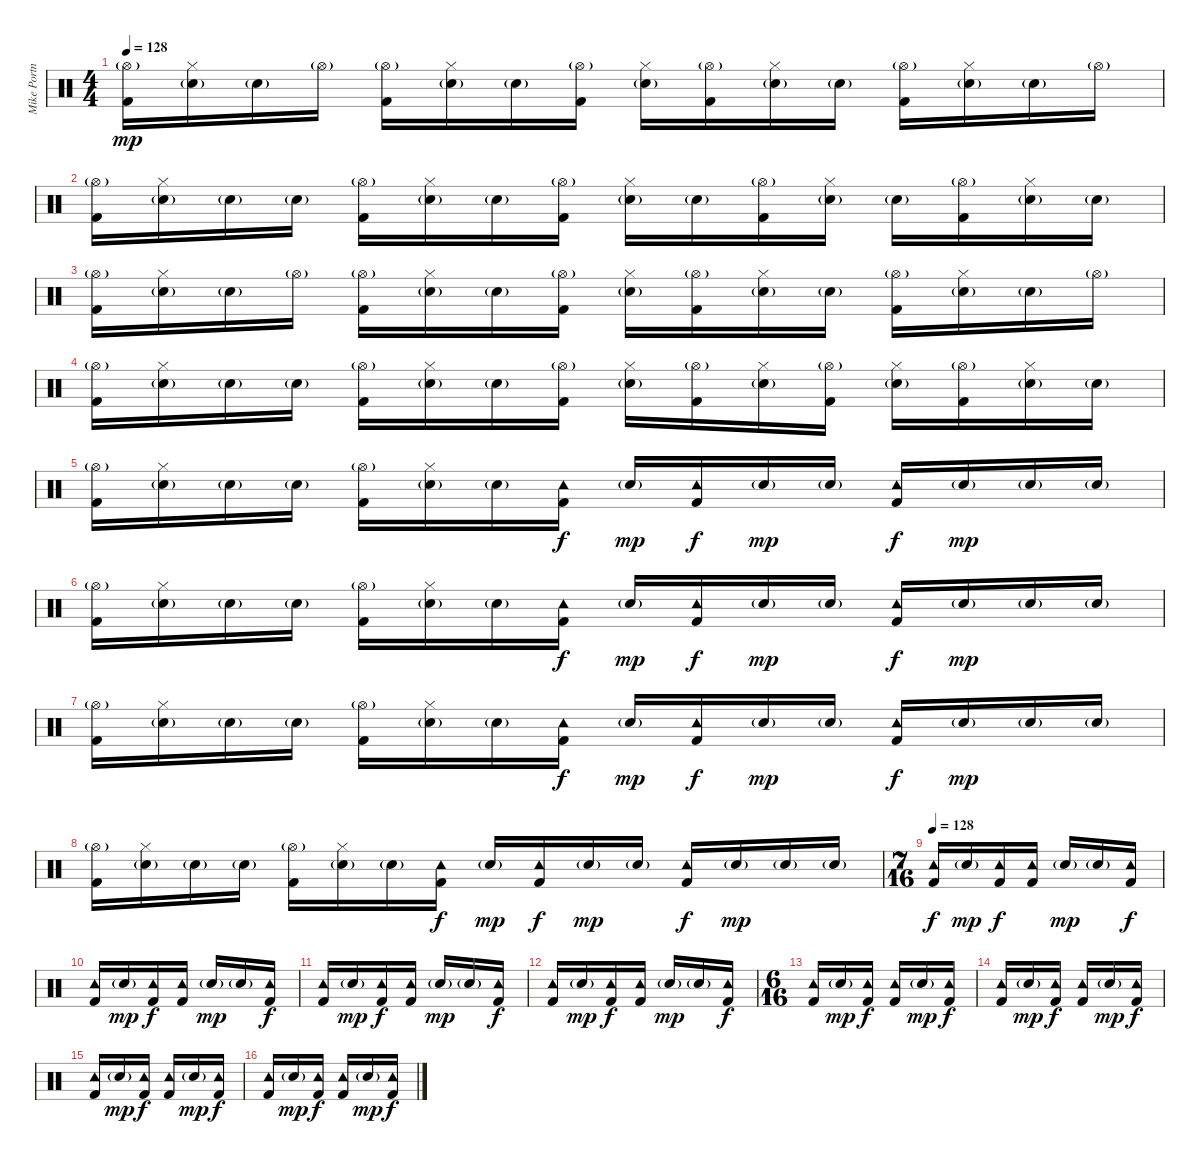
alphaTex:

\track ("Mike Portnoy Drums" "Mike Portn") {instrument percussion}
\staff {score}
\articulation defaults
\ts (4 4)
\tempo 128
\clef neutral
\ks c
("Hi-Hat (open)"{g} "Kick (hit) 2").16{dy mp} ("Hi-Hat (closed)" "Snare (hit) 2"{g}).16 "Snare (hit) 2"{g}.16 "Hi-Hat (open)"{g}.16 ("Hi-Hat (open)"{g} "Kick (hit) 2").16 ("Hi-Hat (closed)" "Snare (hit) 2"{g}).16 "Snare (hit) 2"{g}.16 ("Hi-Hat (open)"{g} "Kick (hit) 2").16 ("Hi-Hat (closed)" "Snare (hit) 2"{g}).16 ("Hi-Hat (open)"{g} "Kick (hit) 2").16 ("Hi-Hat (closed)" "Snare (hit) 2"{g}).16 "Snare (hit) 2"{g}.16 ("Hi-Hat (open)"{g} "Kick (hit) 2").16 ("Hi-Hat (closed)" "Snare (hit) 2"{g}).16 "Snare (hit) 2"{g}.16 "Hi-Hat (open)"{g}.16 |
("Hi-Hat (open)"{g} "Kick (hit) 2").16 ("Hi-Hat (closed)" "Snare (hit) 2"{g}).16 "Snare (hit) 2"{g}.16 "Snare (hit) 2"{g}.16 ("Hi-Hat (open)"{g} "Kick (hit) 2").16 ("Hi-Hat (closed)" "Snare (hit) 2"{g}).16 "Snare (hit) 2"{g}.16 ("Hi-Hat (open)"{g} "Kick (hit) 2").16 ("Hi-Hat (closed)" "Snare (hit) 2"{g}).16 "Snare (hit) 2"{g}.16 ("Hi-Hat (open)"{g} "Kick (hit) 2").16 ("Hi-Hat (closed)" "Snare (hit) 2"{g}).16 "Snare (hit) 2"{g}.16 ("Hi-Hat (open)"{g} "Kick (hit) 2").16 ("Hi-Hat (closed)" "Snare (hit) 2"{g}).16 "Snare (hit) 2"{g}.16 |
("Hi-Hat (open)"{g} "Kick (hit) 2").16 ("Hi-Hat (closed)" "Snare (hit) 2"{g}).16 "Snare (hit) 2"{g}.16 "Hi-Hat (open)"{g}.16 ("Hi-Hat (open)"{g} "Kick (hit) 2").16 ("Hi-Hat (closed)" "Snare (hit) 2"{g}).16 "Snare (hit) 2"{g}.16 ("Hi-Hat (open)"{g} "Kick (hit) 2").16 ("Hi-Hat (closed)" "Snare (hit) 2"{g}).16 ("Hi-Hat (open)"{g} "Kick (hit) 2").16 ("Hi-Hat (closed)" "Snare (hit) 2"{g}).16 "Snare (hit) 2"{g}.16 ("Hi-Hat (open)"{g} "Kick (hit) 2").16 ("Hi-Hat (closed)" "Snare (hit) 2"{g}).16 "Snare (hit) 2"{g}.16 "Hi-Hat (open)"{g}.16 |
("Hi-Hat (open)"{g} "Kick (hit) 2").16 ("Hi-Hat (closed)" "Snare (hit) 2"{g}).16 "Snare (hit) 2"{g}.16 "Snare (hit) 2"{g}.16 ("Hi-Hat (open)"{g} "Kick (hit) 2").16 ("Hi-Hat (closed)" "Snare (hit) 2"{g}).16 "Snare (hit) 2"{g}.16 ("Hi-Hat (open)"{g} "Kick (hit) 2").16 ("Hi-Hat (closed)" "Snare (hit) 2"{g}).16 ("Hi-Hat (open)"{g} "Kick (hit) 2").16 ("Hi-Hat (closed)" "Snare (hit) 2"{g}).16 ("Hi-Hat (open)"{g} "Kick (hit) 2").16 ("Hi-Hat (closed)" "Snare (hit) 2"{g}).16 ("Hi-Hat (open)"{g} "Kick (hit) 2").16 ("Hi-Hat (closed)" "Snare (hit) 2"{g}).16 "Snare (hit) 2"{g}.16 |
("Hi-Hat (open)"{g} "Kick (hit) 2").16 ("Hi-Hat (closed)" "Snare (hit) 2"{g}).16 "Snare (hit) 2"{g}.16 "Snare (hit) 2"{g}.16 ("Hi-Hat (open)"{g} "Kick (hit) 2").16 ("Hi-Hat (closed)" "Snare (hit) 2"{g}).16 "Snare (hit) 2"{g}.16 ("Tambourine (hit)" "Kick (hit) 2").16{dy f} "Snare (hit) 2"{g}.16{dy mp} ("Tambourine (hit)" "Kick (hit) 2").16{dy f} "Snare (hit) 2"{g}.16{dy mp} "Snare (hit) 2"{g}.16 ("Tambourine (hit)" "Kick (hit) 2").16{dy f} "Snare (hit) 2"{g}.16{dy mp} "Snare (hit) 2"{g}.16 "Snare (hit) 2"{g}.16 |
("Hi-Hat (open)"{g} "Kick (hit) 2").16 ("Hi-Hat (closed)" "Snare (hit) 2"{g}).16 "Snare (hit) 2"{g}.16 "Snare (hit) 2"{g}.16 ("Hi-Hat (open)"{g} "Kick (hit) 2").16 ("Hi-Hat (closed)" "Snare (hit) 2"{g}).16 "Snare (hit) 2"{g}.16 ("Tambourine (hit)" "Kick (hit) 2").16{dy f} "Snare (hit) 2"{g}.16{dy mp} ("Tambourine (hit)" "Kick (hit) 2").16{dy f} "Snare (hit) 2"{g}.16{dy mp} "Snare (hit) 2"{g}.16 ("Tambourine (hit)" "Kick (hit) 2").16{dy f} "Snare (hit) 2"{g}.16{dy mp} "Snare (hit) 2"{g}.16 "Snare (hit) 2"{g}.16 |
("Hi-Hat (open)"{g} "Kick (hit) 2").16 ("Hi-Hat (closed)" "Snare (hit) 2"{g}).16 "Snare (hit) 2"{g}.16 "Snare (hit) 2"{g}.16 ("Hi-Hat (open)"{g} "Kick (hit) 2").16 ("Hi-Hat (closed)" "Snare (hit) 2"{g}).16 "Snare (hit) 2"{g}.16 ("Tambourine (hit)" "Kick (hit) 2").16{dy f} "Snare (hit) 2"{g}.16{dy mp} ("Tambourine (hit)" "Kick (hit) 2").16{dy f} "Snare (hit) 2"{g}.16{dy mp} "Snare (hit) 2"{g}.16 ("Tambourine (hit)" "Kick (hit) 2").16{dy f} "Snare (hit) 2"{g}.16{dy mp} "Snare (hit) 2"{g}.16 "Snare (hit) 2"{g}.16 |
("Hi-Hat (open)"{g} "Kick (hit) 2").16 ("Hi-Hat (closed)" "Snare (hit) 2"{g}).16 "Snare (hit) 2"{g}.16 "Snare (hit) 2"{g}.16 ("Hi-Hat (open)"{g} "Kick (hit) 2").16 ("Hi-Hat (closed)" "Snare (hit) 2"{g}).16 "Snare (hit) 2"{g}.16 ("Tambourine (hit)" "Kick (hit) 2").16{dy f} "Snare (hit) 2"{g}.16{dy mp} ("Tambourine (hit)" "Kick (hit) 2").16{dy f} "Snare (hit) 2"{g}.16{dy mp} "Snare (hit) 2"{g}.16 ("Tambourine (hit)" "Kick (hit) 2").16{dy f} "Snare (hit) 2"{g}.16{dy mp} "Snare (hit) 2"{g}.16 "Snare (hit) 2"{g}.16 |
\ts (7 16)
\tempo 128
("Tambourine (hit)" "Kick (hit) 2").16{dy f} "Snare (hit) 2"{g}.16{dy mp} ("Tambourine (hit)" "Kick (hit) 2").16{dy f} ("Tambourine (hit)" "Kick (hit) 2").16 "Snare (hit) 2"{g}.16{dy mp} "Snare (hit) 2"{g}.16 ("Tambourine (hit)" "Kick (hit) 2").16{dy f} |
("Tambourine (hit)" "Kick (hit) 2").16 "Snare (hit) 2"{g}.16{dy mp} ("Tambourine (hit)" "Kick (hit) 2").16{dy f} ("Tambourine (hit)" "Kick (hit) 2").16 "Snare (hit) 2"{g}.16{dy mp} "Snare (hit) 2"{g}.16 ("Tambourine (hit)" "Kick (hit) 2").16{dy f} |
("Tambourine (hit)" "Kick (hit) 2").16 "Snare (hit) 2"{g}.16{dy mp} ("Tambourine (hit)" "Kick (hit) 2").16{dy f} ("Tambourine (hit)" "Kick (hit) 2").16 "Snare (hit) 2"{g}.16{dy mp} "Snare (hit) 2"{g}.16 ("Tambourine (hit)" "Kick (hit) 2").16{dy f} |
("Tambourine (hit)" "Kick (hit) 2").16 "Snare (hit) 2"{g}.16{dy mp} ("Tambourine (hit)" "Kick (hit) 2").16{dy f} ("Tambourine (hit)" "Kick (hit) 2").16 "Snare (hit) 2"{g}.16{dy mp} "Snare (hit) 2"{g}.16 ("Tambourine (hit)" "Kick (hit) 2").16{dy f} |
\ts (6 16)
("Tambourine (hit)" "Kick (hit) 2").16 "Snare (hit) 2"{g}.16{dy mp} ("Tambourine (hit)" "Kick (hit) 2").16{dy f} ("Tambourine (hit)" "Kick (hit) 2").16 "Snare (hit) 2"{g}.16{dy mp} ("Tambourine (hit)" "Kick (hit) 2").16{dy f} |
("Tambourine (hit)" "Kick (hit) 2").16 "Snare (hit) 2"{g}.16{dy mp} ("Tambourine (hit)" "Kick (hit) 2").16{dy f} ("Tambourine (hit)" "Kick (hit) 2").16 "Snare (hit) 2"{g}.16{dy mp} ("Tambourine (hit)" "Kick (hit) 2").16{dy f} |
("Tambourine (hit)" "Kick (hit) 2").16 "Snare (hit) 2"{g}.16{dy mp} ("Tambourine (hit)" "Kick (hit) 2").16{dy f} ("Tambourine (hit)" "Kick (hit) 2").16 "Snare (hit) 2"{g}.16{dy mp} ("Tambourine (hit)" "Kick (hit) 2").16{dy f} |
("Tambourine (hit)" "Kick (hit) 2").16 "Snare (hit) 2"{g}.16{dy mp} ("Tambourine (hit)" "Kick (hit) 2").16{dy f} ("Tambourine (hit)" "Kick (hit) 2").16 "Snare (hit) 2"{g}.16{dy mp} ("Tambourine (hit)" "Kick (hit) 2").16{dy f}
